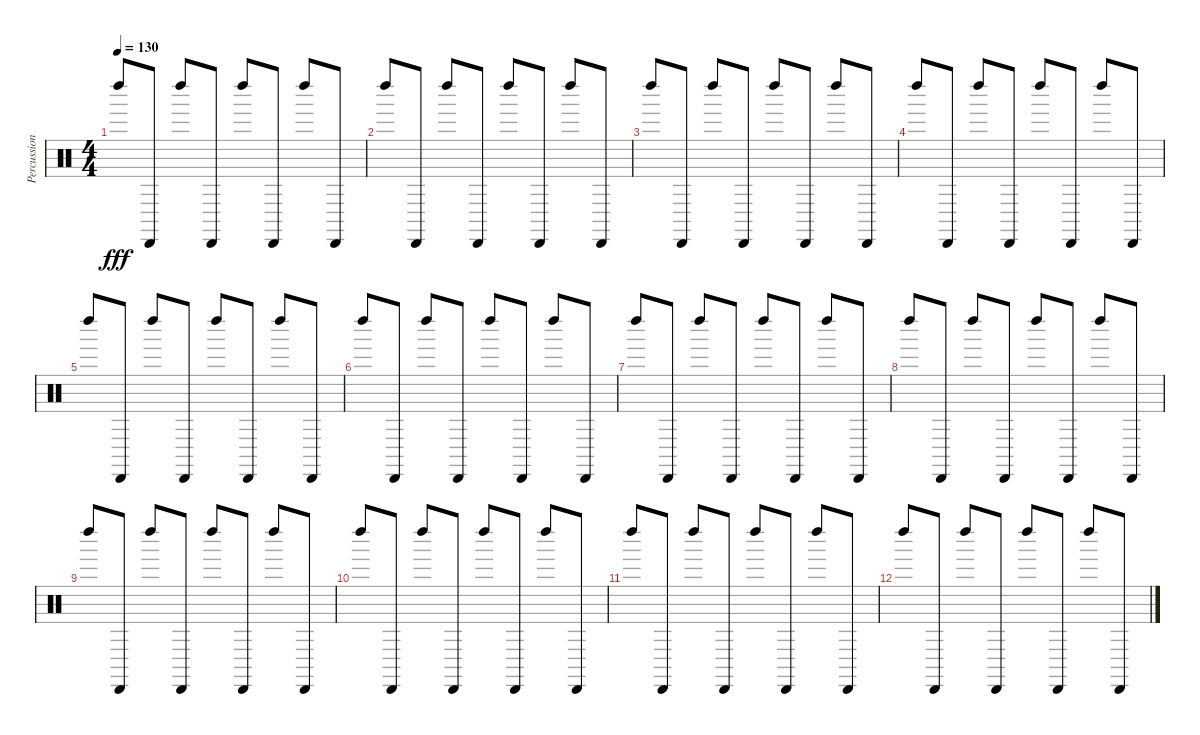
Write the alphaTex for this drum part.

\track ("Percussions" "Percussion") {instrument percussion}
\staff {score}
\articulation defaults
\ts (4 4)
\tempo 130
\clef neutral
\ks c "Left Maraca (hit)".8{dy fff} "Cabasa (hit)".8 "Left Maraca (hit)".8 "Cabasa (hit)".8 "Left Maraca (hit)".8 "Cabasa (hit)".8 "Left Maraca (hit)".8 "Cabasa (hit)".8
|
"Left Maraca (hit)".8 "Cabasa (hit)".8 "Left Maraca (hit)".8 "Cabasa (hit)".8 "Left Maraca (hit)".8 "Cabasa (hit)".8 "Left Maraca (hit)".8 "Cabasa (hit)".8 |
"Left Maraca (hit)".8 "Cabasa (hit)".8 "Left Maraca (hit)".8 "Cabasa (hit)".8 "Left Maraca (hit)".8 "Cabasa (hit)".8 "Left Maraca (hit)".8 "Cabasa (hit)".8 |
"Left Maraca (hit)".8 "Cabasa (hit)".8 "Left Maraca (hit)".8 "Cabasa (hit)".8 "Left Maraca (hit)".8 "Cabasa (hit)".8 "Left Maraca (hit)".8 "Cabasa (hit)".8 |
"Left Maraca (hit)".8 "Cabasa (hit)".8 "Left Maraca (hit)".8 "Cabasa (hit)".8 "Left Maraca (hit)".8 "Cabasa (hit)".8 "Left Maraca (hit)".8 "Cabasa (hit)".8 |
"Left Maraca (hit)".8 "Cabasa (hit)".8 "Left Maraca (hit)".8 "Cabasa (hit)".8 "Left Maraca (hit)".8 "Cabasa (hit)".8 "Left Maraca (hit)".8 "Cabasa (hit)".8 |
"Left Maraca (hit)".8 "Cabasa (hit)".8 "Left Maraca (hit)".8 "Cabasa (hit)".8 "Left Maraca (hit)".8 "Cabasa (hit)".8 "Left Maraca (hit)".8 "Cabasa (hit)".8 |
"Left Maraca (hit)".8 "Cabasa (hit)".8 "Left Maraca (hit)".8 "Cabasa (hit)".8 "Left Maraca (hit)".8 "Cabasa (hit)".8 "Left Maraca (hit)".8 "Cabasa (hit)".8 |
"Left Maraca (hit)".8 "Cabasa (hit)".8 "Left Maraca (hit)".8 "Cabasa (hit)".8 "Left Maraca (hit)".8 "Cabasa (hit)".8 "Left Maraca (hit)".8 "Cabasa (hit)".8 |
"Left Maraca (hit)".8 "Cabasa (hit)".8 "Left Maraca (hit)".8 "Cabasa (hit)".8 "Left Maraca (hit)".8 "Cabasa (hit)".8 "Left Maraca (hit)".8 "Cabasa (hit)".8 |
"Left Maraca (hit)".8 "Cabasa (hit)".8 "Left Maraca (hit)".8 "Cabasa (hit)".8 "Left Maraca (hit)".8 "Cabasa (hit)".8 "Left Maraca (hit)".8 "Cabasa (hit)".8 |
"Left Maraca (hit)".8 "Cabasa (hit)".8 "Left Maraca (hit)".8 "Cabasa (hit)".8 "Left Maraca (hit)".8 "Cabasa (hit)".8 "Left Maraca (hit)".8 "Cabasa (hit)".8
